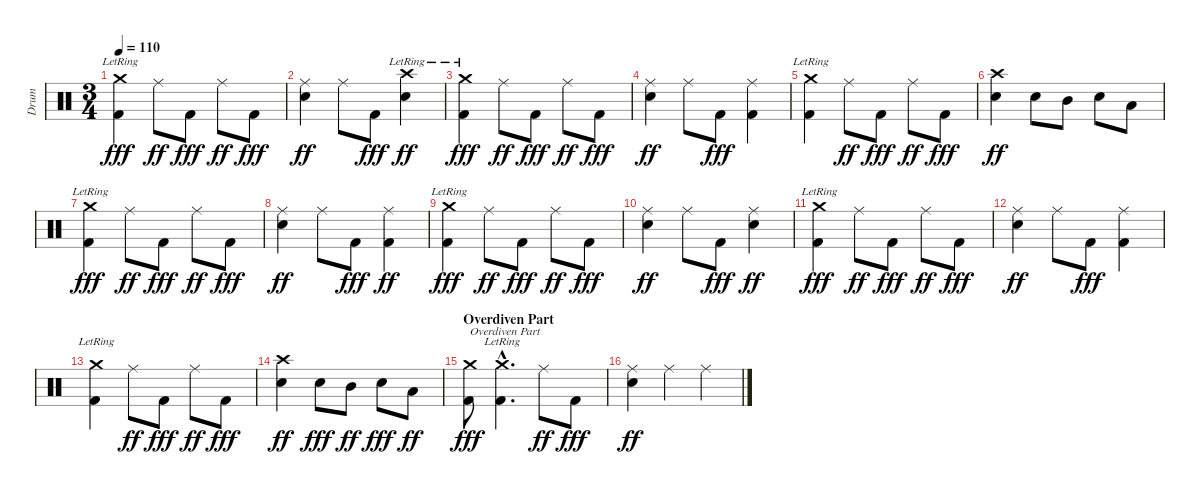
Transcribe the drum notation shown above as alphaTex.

\track ("Drum" "Drum") {instrument percussion}
\staff {score}
\articulation defaults
\ts (3 4)
\tempo 110
\clef neutral
\ks c
("Crash medium (hit)"{lr} "Kick (hit) 2").4{dy fff} "Ride (middle)".8{dy ff} "Kick (hit) 2".8{dy fff} "Ride (middle)".8{dy ff} "Kick (hit) 2".8{dy fff} |
("Ride (middle)" "Snare (hit) 2").4{dy ff} "Ride (middle)".8 "Kick (hit) 2".8{dy fff} ("Crash high (hit)"{lr} "Snare (hit) 2").4{dy ff} |
("Crash medium (hit)"{lr} "Kick (hit) 2").4{dy fff} "Ride (middle)".8{dy ff} "Kick (hit) 2".8{dy fff} "Ride (middle)".8{dy ff} "Kick (hit) 2".8{dy fff} |
("Ride (middle)" "Snare (hit) 2").4{dy ff} "Ride (middle)".8 "Kick (hit) 2".8{dy fff} ("Ride (middle)" "Kick (hit) 2").4 |
("Crash medium (hit)"{lr} "Kick (hit) 2").4 "Ride (middle)".8{dy ff} "Kick (hit) 2".8{dy fff} "Ride (middle)".8{dy ff} "Kick (hit) 2".8{dy fff} |
("Crash high (hit)" "Snare (hit) 2").4{dy ff} "Snare (hit) 2".8 "Mid Tom (hit)".8 "Snare (hit) 2".8 "Low Tom (hit)".8 |
("Crash medium (hit)"{lr} "Kick (hit) 2").4{dy fff} "Ride (middle)".8{dy ff} "Kick (hit) 2".8{dy fff} "Ride (middle)".8{dy ff} "Kick (hit) 2".8{dy fff} |
("Ride (middle)" "Snare (hit) 2").4{dy ff} "Ride (middle)".8 "Kick (hit) 2".8{dy fff} ("Ride (middle)" "Kick (hit) 2").4{dy ff} |
("Crash medium (hit)"{lr} "Kick (hit) 2").4{dy fff} "Ride (middle)".8{dy ff} "Kick (hit) 2".8{dy fff} "Ride (middle)".8{dy ff} "Kick (hit) 2".8{dy fff} |
("Ride (middle)" "Snare (hit) 2").4{dy ff} "Ride (middle)".8 "Kick (hit) 2".8{dy fff} ("Ride (middle)" "Snare (hit) 2").4{dy ff} |
("Crash medium (hit)"{lr} "Kick (hit) 2").4{dy fff} "Ride (middle)".8{dy ff} "Kick (hit) 2".8{dy fff} "Ride (middle)".8{dy ff} "Kick (hit) 2".8{dy fff} |
("Ride (middle)" "Snare (hit) 2").4{dy ff} "Ride (middle)".8 "Kick (hit) 2".8{dy fff} ("Ride (middle)" "Kick (hit) 2").4 |
("Crash medium (hit)"{lr} "Kick (hit) 2").4 "Ride (middle)".8{dy ff} "Kick (hit) 2".8{dy fff} "Ride (middle)".8{dy ff} "Kick (hit) 2".8{dy fff} |
("Crash high (hit)" "Snare (hit) 2").4{dy ff} "Snare (hit) 2".8{dy fff} "Mid Tom (hit)".8{dy ff} "Snare (hit) 2".8{dy fff} "Low Tom (hit)".8{dy ff} |
\section ("" "Overdiven Part")
("Crash medium (hit)" "Kick (hit) 2").8{txt "Overdiven Part" dy fff} ("Crash medium (hit)"{hac lr} "Kick (hit) 2"{hac}).4{d} "Ride (middle)".8{dy ff} "Kick (hit) 2".8{dy fff} |
("Ride (middle)" "Snare (hit) 2").4{dy ff} "Ride (middle)".4 "Ride (middle)".4
